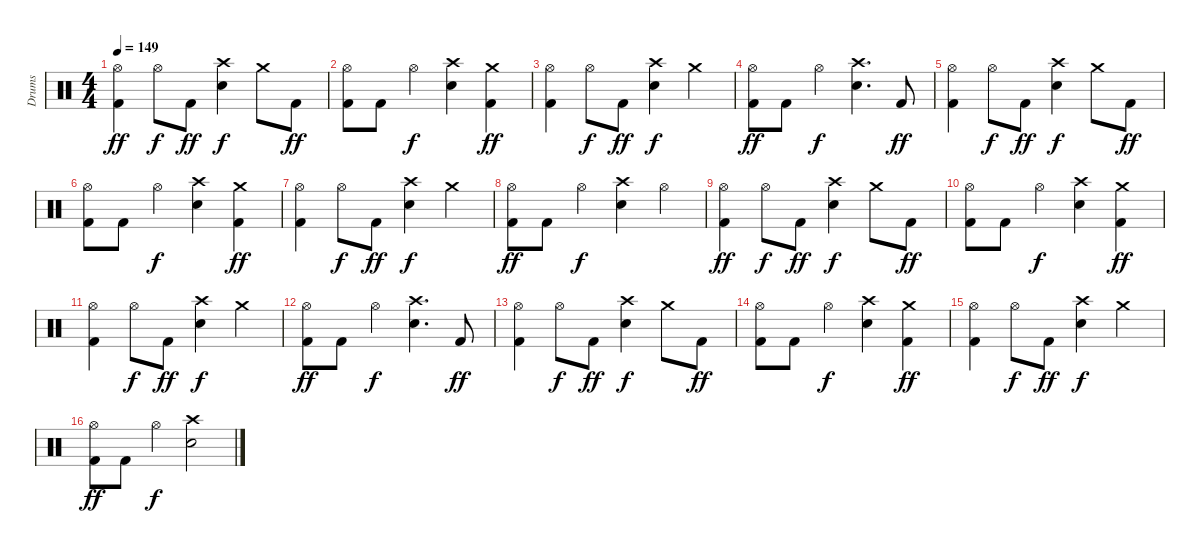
\track ("Drums" "Drums") {instrument percussion}
\staff {score}
\articulation defaults
\ts (4 4)
\tempo 149
\clef neutral
\ks c
("Kick (hit) 2" "Hi-Hat (open)").4{dy ff} "Hi-Hat (open)".8{dy f} "Kick (hit) 2".8{dy ff} ("Crash high (hit)" "Snare (hit) 2").4{dy f} "Crash medium (hit)".8 "Kick (hit) 2".8{dy ff} |
("Kick (hit) 2" "Hi-Hat (open)").8 "Kick (hit) 2".8 "Hi-Hat (open)".4{dy f} ("Crash high (hit)" "Snare (hit) 2").4 ("Crash medium (hit)" "Kick (hit) 2").4{dy ff} |
("Kick (hit) 2" "Hi-Hat (open)").4 "Hi-Hat (open)".8{dy f} "Kick (hit) 2".8{dy ff} ("Crash high (hit)" "Snare (hit) 2").4{dy f} "Crash medium (hit)".4 |
("Kick (hit) 2" "Hi-Hat (open)").8{dy ff} "Kick (hit) 2".8 "Hi-Hat (open)".4{dy f} ("Crash high (hit)" "Snare (hit) 2").4{d} "Kick (hit) 2".8{dy ff} |
("Kick (hit) 2" "Hi-Hat (open)").4 "Hi-Hat (open)".8{dy f} "Kick (hit) 2".8{dy ff} ("Crash high (hit)" "Snare (hit) 2").4{dy f} "Crash medium (hit)".8 "Kick (hit) 2".8{dy ff} |
("Kick (hit) 2" "Hi-Hat (open)").8 "Kick (hit) 2".8 "Hi-Hat (open)".4{dy f} ("Crash high (hit)" "Snare (hit) 2").4 ("Crash medium (hit)" "Kick (hit) 2").4{dy ff} |
("Kick (hit) 2" "Hi-Hat (open)").4 "Hi-Hat (open)".8{dy f} "Kick (hit) 2".8{dy ff} ("Crash high (hit)" "Snare (hit) 2").4{dy f} "Crash medium (hit)".4 |
("Kick (hit) 2" "Hi-Hat (open)").8{dy ff} "Kick (hit) 2".8 "Hi-Hat (open)".4{dy f} ("Crash high (hit)" "Snare (hit) 2").4 "Hi-Hat (open)".4 |
("Kick (hit) 2" "Hi-Hat (open)").4{dy ff} "Hi-Hat (open)".8{dy f} "Kick (hit) 2".8{dy ff} ("Crash high (hit)" "Snare (hit) 2").4{dy f} "Crash medium (hit)".8 "Kick (hit) 2".8{dy ff} |
("Kick (hit) 2" "Hi-Hat (open)").8 "Kick (hit) 2".8 "Hi-Hat (open)".4{dy f} ("Crash high (hit)" "Snare (hit) 2").4 ("Crash medium (hit)" "Kick (hit) 2").4{dy ff} |
("Kick (hit) 2" "Hi-Hat (open)").4 "Hi-Hat (open)".8{dy f} "Kick (hit) 2".8{dy ff} ("Crash high (hit)" "Snare (hit) 2").4{dy f} "Crash medium (hit)".4 |
("Kick (hit) 2" "Hi-Hat (open)").8{dy ff} "Kick (hit) 2".8 "Hi-Hat (open)".4{dy f} ("Crash high (hit)" "Snare (hit) 2").4{d} "Kick (hit) 2".8{dy ff} |
("Kick (hit) 2" "Hi-Hat (open)").4 "Hi-Hat (open)".8{dy f} "Kick (hit) 2".8{dy ff} ("Crash high (hit)" "Snare (hit) 2").4{dy f} "Crash medium (hit)".8 "Kick (hit) 2".8{dy ff} |
("Kick (hit) 2" "Hi-Hat (open)").8 "Kick (hit) 2".8 "Hi-Hat (open)".4{dy f} ("Crash high (hit)" "Snare (hit) 2").4 ("Crash medium (hit)" "Kick (hit) 2").4{dy ff} |
("Kick (hit) 2" "Hi-Hat (open)").4 "Hi-Hat (open)".8{dy f} "Kick (hit) 2".8{dy ff} ("Crash high (hit)" "Snare (hit) 2").4{dy f} "Crash medium (hit)".4 |
("Kick (hit) 2" "Hi-Hat (open)").8{dy ff} "Kick (hit) 2".8 "Hi-Hat (open)".4{dy f} ("Crash high (hit)" "Snare (hit) 2").2
